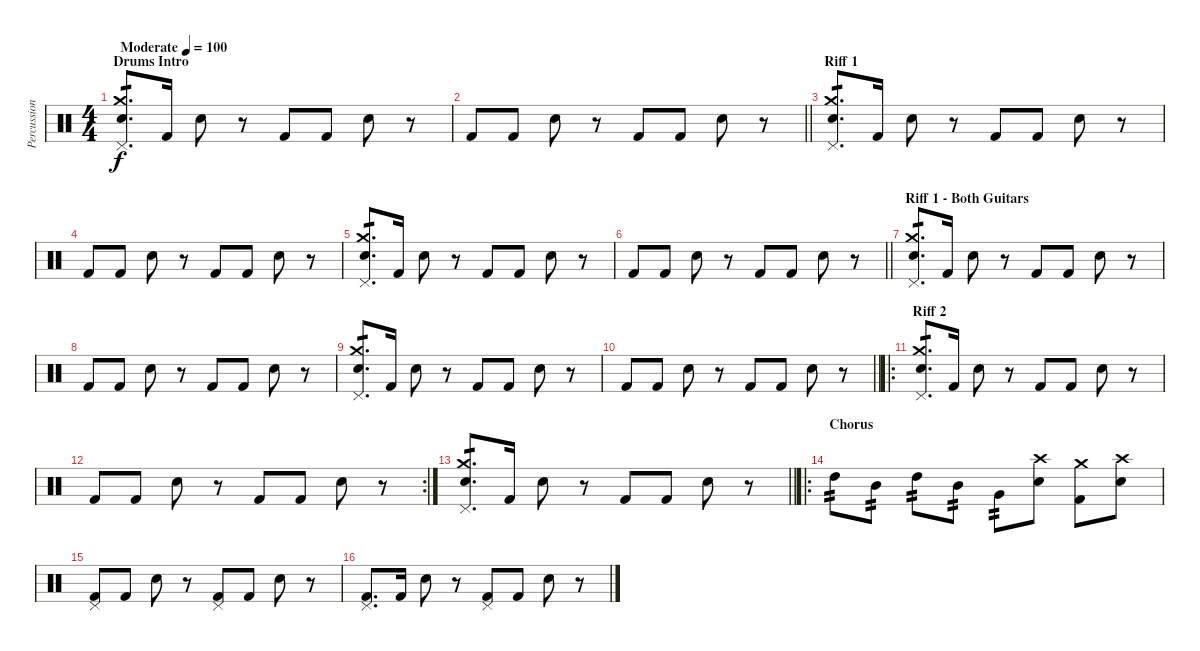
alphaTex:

\track ("Percussion" "Percussion") {instrument percussion}
\staff {score}
\articulation defaults
\ts (4 4)
\section ("" "Drums Intro")
\tempo (100 "Moderate")
\clef neutral
\ks c
("Snare (hit) 2" "Crash medium (hit)" "Pedal Hi-Hat (hit)").8{d tp 1 dy f} "Kick (hit) 2".16 "Snare (hit) 2".8 r.8 "Kick (hit) 2".8 "Kick (hit) 2".8 "Snare (hit) 2".8 r.8 |
\barLineRight lightlight "Kick (hit) 2".8 "Kick (hit) 2".8 "Snare (hit) 2".8
r.8 "Kick (hit) 2".8 "Kick (hit) 2".8 "Snare (hit) 2".8 r.8 |
\section ("" "Riff 1")
("Snare (hit) 2" "Crash medium (hit)" "Pedal Hi-Hat (hit)").8{d tp 1} "Kick (hit) 2".16 "Snare (hit) 2".8 r.8 "Kick (hit) 2".8 "Kick (hit) 2".8 "Snare (hit) 2".8 r.8 |
"Kick (hit) 2".8 "Kick (hit) 2".8 "Snare (hit) 2".8 r.8 "Kick (hit) 2".8 "Kick (hit) 2".8 "Snare (hit) 2".8 r.8 |
("Snare (hit) 2" "Crash medium (hit)" "Pedal Hi-Hat (hit)").8{d tp 1} "Kick (hit) 2".16 "Snare (hit) 2".8 r.8 "Kick (hit) 2".8 "Kick (hit) 2".8 "Snare (hit) 2".8 r.8 |
\barLineRight lightlight "Kick (hit) 2".8 "Kick (hit) 2".8 "Snare (hit) 2".8
r.8 "Kick (hit) 2".8 "Kick (hit) 2".8 "Snare (hit) 2".8 r.8 |
\section ("" "Riff 1 - Both Guitars")
("Snare (hit) 2" "Crash medium (hit)" "Pedal Hi-Hat (hit)").8{d tp 1} "Kick (hit) 2".16 "Snare (hit) 2".8 r.8 "Kick (hit) 2".8 "Kick (hit) 2".8 "Snare (hit) 2".8 r.8 |
"Kick (hit) 2".8 "Kick (hit) 2".8 "Snare (hit) 2".8 r.8 "Kick (hit) 2".8 "Kick (hit) 2".8 "Snare (hit) 2".8 r.8 |
("Snare (hit) 2" "Crash medium (hit)" "Pedal Hi-Hat (hit)").8{d tp 1} "Kick (hit) 2".16 "Snare (hit) 2".8 r.8 "Kick (hit) 2".8 "Kick (hit) 2".8 "Snare (hit) 2".8 r.8 |
\barLineRight lightlight "Kick (hit) 2".8 "Kick (hit) 2".8 "Snare (hit) 2".8
r.8 "Kick (hit) 2".8 "Kick (hit) 2".8 "Snare (hit) 2".8 r.8 |
\ro
\section ("" "Riff 2")
("Snare (hit) 2" "Crash medium (hit)" "Pedal Hi-Hat (hit)").8{d tp 1} "Kick (hit) 2".16 "Snare (hit) 2".8 r.8 "Kick (hit) 2".8 "Kick (hit) 2".8 "Snare (hit) 2".8 r.8 |
\rc 2 "Kick (hit) 2".8 "Kick (hit) 2".8 "Snare (hit) 2".8
r.8 "Kick (hit) 2".8 "Kick (hit) 2".8 "Snare (hit) 2".8 r.8 |
\barLineRight lightlight
("Snare (hit) 2" "Crash medium (hit)" "Pedal Hi-Hat (hit)").8{d tp 1} "Kick (hit) 2".16 "Snare (hit) 2".8 r.8 "Kick (hit) 2".8 "Kick (hit) 2".8 "Snare (hit) 2".8 r.8 |
\ro
\section ("" "Chorus")
"High Tom (hit)".8{tp 2} "Mid Tom (hit)".8{tp 2} "High Tom (hit)".8{tp 2} "Mid Tom (hit)".8{tp 2} "Very Low Tom (hit)".8{tp 2} ("Snare (hit) 2" "Crash high (hit)").8 ("Kick (hit) 2" "Crash medium (hit)").8 ("Snare (hit) 2" "Crash high (hit)").8 |
("Kick (hit) 2" "Pedal Hi-Hat (hit)").8 "Kick (hit) 2".8 "Snare (hit) 2".8 r.8 ("Kick (hit) 2" "Pedal Hi-Hat (hit)").8 "Kick (hit) 2".8 "Snare (hit) 2".8 r.8 |
("Kick (hit) 2" "Pedal Hi-Hat (hit)").8{d} "Kick (hit) 2".16 "Snare (hit) 2".8 r.8 ("Kick (hit) 2" "Pedal Hi-Hat (hit)").8 "Kick (hit) 2".8 "Snare (hit) 2".8 r.8
